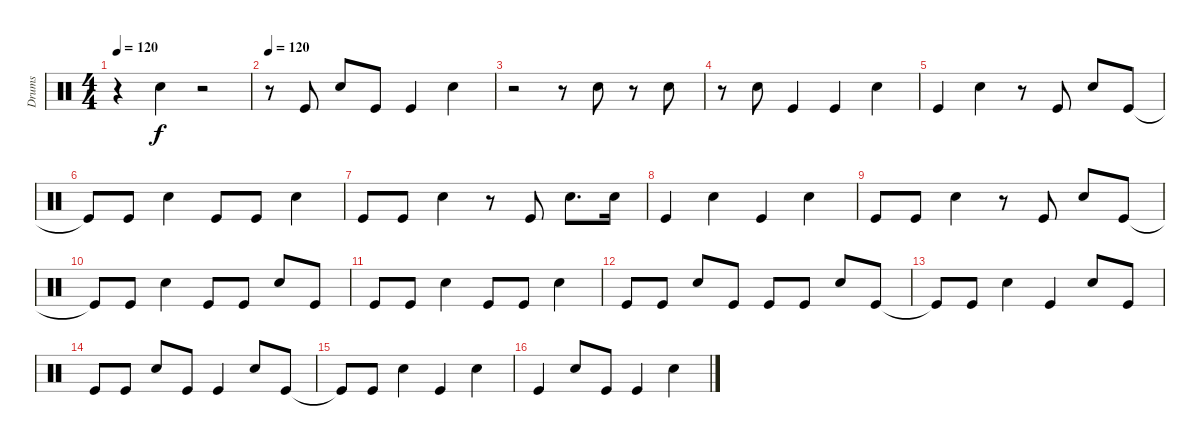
\track ("Drums" "Drums") {instrument percussion}
\staff {score}
\articulation defaults
\ts (4 4)
\tempo 120
\clef neutral
\ks c
r.4{dy f} "Snare (hit) 2".4 r.2 |
\tempo 120
r.8 "Kick (hit)".8 "Snare (hit) 2".8 "Kick (hit)".8 "Kick (hit)".4 "Snare (hit) 2".4 |
r.2 r.8 "Snare (hit) 2".8 r.8 "Snare (hit) 2".8 |
r.8 "Snare (hit) 2".8 "Kick (hit)".4 "Kick (hit)".4 "Snare (hit) 2".4 |
"Kick (hit)".4 "Snare (hit) 2".4 r.8 "Kick (hit)".8 "Snare (hit) 2".8 "Kick (hit)".8 |
"Kick (hit)"{t}.8 "Kick (hit)".8 "Snare (hit) 2".4 "Kick (hit)".8 "Kick (hit)".8 "Snare (hit) 2".4 |
"Kick (hit)".8 "Kick (hit)".8 "Snare (hit) 2".4 r.8 "Kick (hit)".8 "Snare (hit) 2".8{d} "Snare (hit) 2".16 |
"Kick (hit)".4 "Snare (hit) 2".4 "Kick (hit)".4 "Snare (hit) 2".4 |
"Kick (hit)".8 "Kick (hit)".8 "Snare (hit) 2".4 r.8 "Kick (hit)".8 "Snare (hit) 2".8 "Kick (hit)".8 |
"Kick (hit)"{t}.8 "Kick (hit)".8 "Snare (hit) 2".4 "Kick (hit)".8 "Kick (hit)".8 "Snare (hit) 2".8 "Kick (hit)".8 |
"Kick (hit)".8 "Kick (hit)".8 "Snare (hit) 2".4 "Kick (hit)".8 "Kick (hit)".8 "Snare (hit) 2".4 |
"Kick (hit)".8 "Kick (hit)".8 "Snare (hit) 2".8 "Kick (hit)".8 "Kick (hit)".8 "Kick (hit)".8 "Snare (hit) 2".8 "Kick (hit)".8 |
"Kick (hit)"{t}.8 "Kick (hit)".8 "Snare (hit) 2".4 "Kick (hit)".4 "Snare (hit) 2".8 "Kick (hit)".8 |
"Kick (hit)".8 "Kick (hit)".8 "Snare (hit) 2".8 "Kick (hit)".8 "Kick (hit)".4 "Snare (hit) 2".8 "Kick (hit)".8 |
"Kick (hit)"{t}.8 "Kick (hit)".8 "Snare (hit) 2".4 "Kick (hit)".4 "Snare (hit) 2".4 |
"Kick (hit)".4 "Snare (hit) 2".8 "Kick (hit)".8 "Kick (hit)".4 "Snare (hit) 2".4
